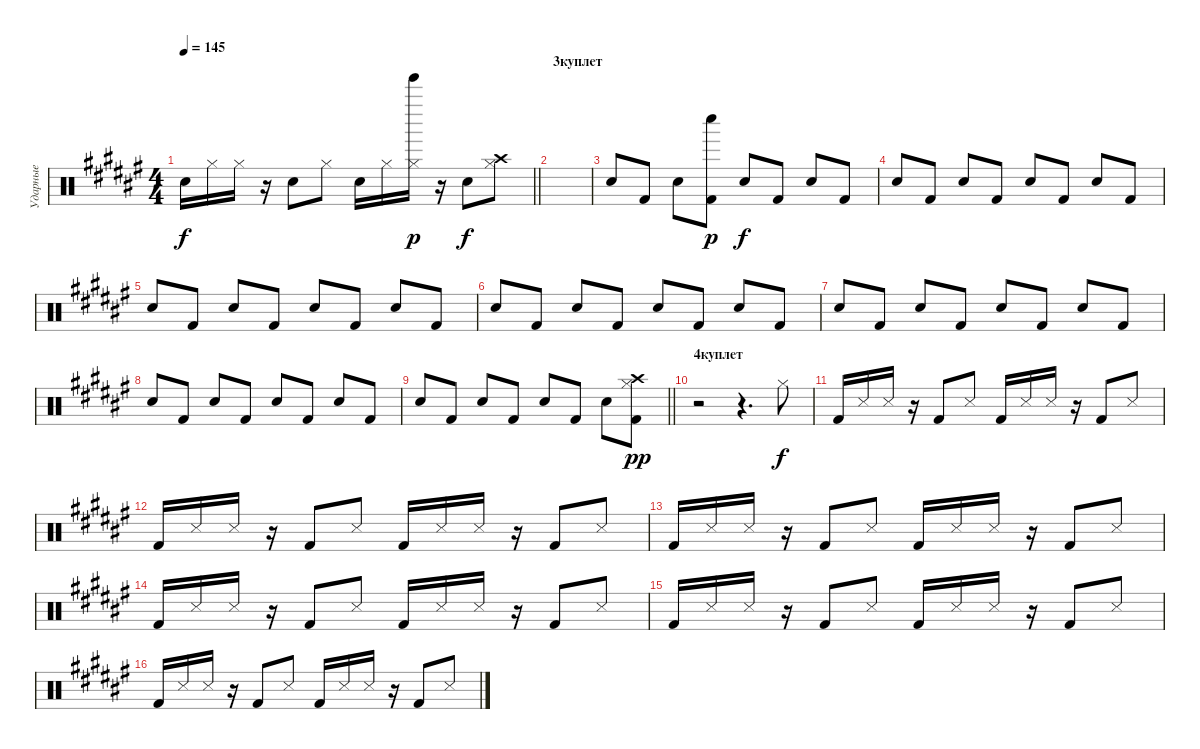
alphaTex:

\track ("Ударные" "Ударные") {instrument percussion}
\staff {score}
\articulation defaults
\ts (4 4)
\tempo 145
\clef neutral
\barLineRight lightlight
\ks f# "Electric Snare (hit)".16{dy f} "Hi-Hat (closed)".16 "Hi-Hat (closed)".16
r.16 "Electric Snare (hit)".8 "Hi-Hat (closed)".8 "Electric Snare (hit)".16 "Hi-Hat (closed)".16 ("Hi-Hat (closed)" "Tinkle Bell (hit)").16{dy p} r.16 "Electric Snare (hit)".8{dy f} ("Hi-Hat (closed)" "Crash high (hit)").8 |
\section ("" "3куплет")
|
"Electric Snare (hit)".8 "Kick (hit) 2".8 "Electric Snare (hit)".8 ("Kick (hit) 2" "Whistle low (hit)").8{dy p} "Electric Snare (hit)".8{dy f} "Kick (hit) 2".8 "Electric Snare (hit)".8 "Kick (hit) 2".8 |
"Electric Snare (hit)".8 "Kick (hit) 2".8 "Electric Snare (hit)".8 "Kick (hit) 2".8 "Electric Snare (hit)".8 "Kick (hit) 2".8 "Electric Snare (hit)".8 "Kick (hit) 2".8 |
"Electric Snare (hit)".8 "Kick (hit) 2".8 "Electric Snare (hit)".8 "Kick (hit) 2".8 "Electric Snare (hit)".8 "Kick (hit) 2".8 "Electric Snare (hit)".8 "Kick (hit) 2".8 |
"Electric Snare (hit)".8 "Kick (hit) 2".8 "Electric Snare (hit)".8 "Kick (hit) 2".8 "Electric Snare (hit)".8 "Kick (hit) 2".8 "Electric Snare (hit)".8 "Kick (hit) 2".8 |
"Electric Snare (hit)".8 "Kick (hit) 2".8 "Electric Snare (hit)".8 "Kick (hit) 2".8 "Electric Snare (hit)".8 "Kick (hit) 2".8 "Electric Snare (hit)".8 "Kick (hit) 2".8 |
"Electric Snare (hit)".8 "Kick (hit) 2".8 "Electric Snare (hit)".8 "Kick (hit) 2".8 "Electric Snare (hit)".8 "Kick (hit) 2".8 "Electric Snare (hit)".8 "Kick (hit) 2".8 |
\barLineRight lightlight "Electric Snare (hit)".8 "Kick (hit) 2".8 "Electric Snare (hit)".8 "Kick (hit) 2".8 "Electric Snare (hit)".8 "Kick (hit) 2".8 "Electric Snare (hit)".8
("Hi-Hat (closed)" "Crash high (hit)" "Kick (hit) 2").8{dy pp} |
\section ("" "4куплет")
r.2 r.4{d} "Hi-Hat (closed)".8{dy f} |
"Kick (hit) 2".16 "Snare (side stick) 3".16 "Snare (side stick) 3".16 r.16 "Kick (hit) 2".8 "Snare (side stick) 3".8 "Kick (hit) 2".16 "Snare (side stick) 3".16 "Snare (side stick) 3".16 r.16 "Kick (hit) 2".8 "Snare (side stick) 3".8 |
"Kick (hit) 2".16 "Snare (side stick) 3".16 "Snare (side stick) 3".16 r.16 "Kick (hit) 2".8 "Snare (side stick) 3".8 "Kick (hit) 2".16 "Snare (side stick) 3".16 "Snare (side stick) 3".16 r.16 "Kick (hit) 2".8 "Snare (side stick) 3".8 |
"Kick (hit) 2".16 "Snare (side stick) 3".16 "Snare (side stick) 3".16 r.16 "Kick (hit) 2".8 "Snare (side stick) 3".8 "Kick (hit) 2".16 "Snare (side stick) 3".16 "Snare (side stick) 3".16 r.16 "Kick (hit) 2".8 "Snare (side stick) 3".8 |
"Kick (hit) 2".16 "Snare (side stick) 3".16 "Snare (side stick) 3".16 r.16 "Kick (hit) 2".8 "Snare (side stick) 3".8 "Kick (hit) 2".16 "Snare (side stick) 3".16 "Snare (side stick) 3".16 r.16 "Kick (hit) 2".8 "Snare (side stick) 3".8 |
"Kick (hit) 2".16 "Snare (side stick) 3".16 "Snare (side stick) 3".16 r.16 "Kick (hit) 2".8 "Snare (side stick) 3".8 "Kick (hit) 2".16 "Snare (side stick) 3".16 "Snare (side stick) 3".16 r.16 "Kick (hit) 2".8 "Snare (side stick) 3".8 |
"Kick (hit) 2".16 "Snare (side stick) 3".16 "Snare (side stick) 3".16 r.16 "Kick (hit) 2".8 "Snare (side stick) 3".8 "Kick (hit) 2".16 "Snare (side stick) 3".16 "Snare (side stick) 3".16 r.16 "Kick (hit) 2".8 "Snare (side stick) 3".8
